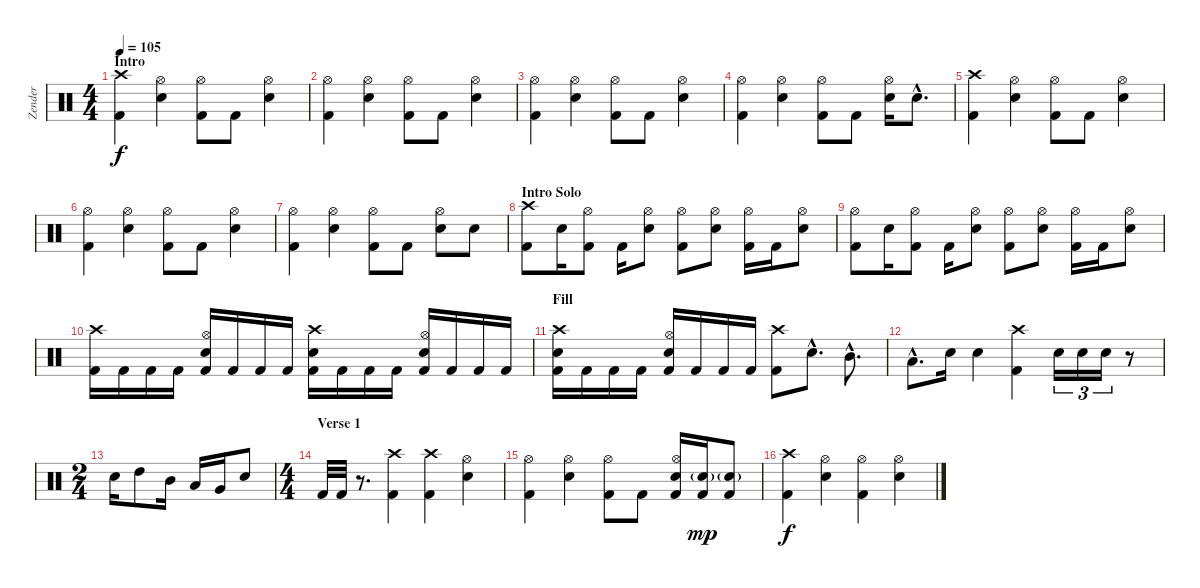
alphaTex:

\track ("Zender" "Zender") {instrument percussion}
\staff {score}
\articulation defaults
\ts (4 4)
\section ("" "Intro")
\tempo 105
\clef neutral
\ks c
("Crash high (hit)" "Kick (hit) 2").4{dy f} ("Hi-Hat (open)" "Electric Snare (hit)").4 ("Hi-Hat (open)" "Kick (hit) 2").8 "Kick (hit) 2".8 ("Hi-Hat (open)" "Electric Snare (hit)").4 |
("Hi-Hat (open)" "Kick (hit) 2").4 ("Hi-Hat (open)" "Electric Snare (hit)").4 ("Hi-Hat (open)" "Kick (hit) 2").8 "Kick (hit) 2".8 ("Hi-Hat (open)" "Electric Snare (hit)").4 |
("Hi-Hat (open)" "Kick (hit) 2").4 ("Hi-Hat (open)" "Electric Snare (hit)").4 ("Hi-Hat (open)" "Kick (hit) 2").8 "Kick (hit) 2".8 ("Hi-Hat (open)" "Electric Snare (hit)").4 |
("Hi-Hat (open)" "Kick (hit) 2").4 ("Hi-Hat (open)" "Electric Snare (hit)").4 ("Hi-Hat (open)" "Kick (hit) 2").8 "Kick (hit) 2".8 ("Hi-Hat (open)" "Electric Snare (hit)").16 "Electric Snare (hit)"{hac}.8{d} |
("Crash high (hit)" "Kick (hit) 2").4 ("Hi-Hat (open)" "Electric Snare (hit)").4 ("Hi-Hat (open)" "Kick (hit) 2").8 "Kick (hit) 2".8 ("Hi-Hat (open)" "Electric Snare (hit)").4 |
("Hi-Hat (open)" "Kick (hit) 2").4 ("Hi-Hat (open)" "Electric Snare (hit)").4 ("Hi-Hat (open)" "Kick (hit) 2").8 "Kick (hit) 2".8 ("Hi-Hat (open)" "Electric Snare (hit)").4 |
("Hi-Hat (open)" "Kick (hit) 2").4 ("Hi-Hat (open)" "Electric Snare (hit)").4 ("Hi-Hat (open)" "Kick (hit) 2").8 "Kick (hit) 2".8 ("Hi-Hat (open)" "Electric Snare (hit)").8 "Electric Snare (hit)".8 |
\section ("" "Intro Solo")
("Crash high (hit)" "Kick (hit) 2").8 "Electric Snare (hit)".16 ("Hi-Hat (open)" "Kick (hit) 2").8 "Kick (hit) 2".16 ("Hi-Hat (open)" "Electric Snare (hit)").8 ("Hi-Hat (open)" "Kick (hit) 2").8 ("Hi-Hat (open)" "Electric Snare (hit)").8 ("Hi-Hat (open)" "Kick (hit) 2").16 "Kick (hit) 2".16 ("Hi-Hat (open)" "Electric Snare (hit)").8 |
("Hi-Hat (open)" "Kick (hit) 2").8 "Electric Snare (hit)".16 ("Hi-Hat (open)" "Kick (hit) 2").8 "Kick (hit) 2".16 ("Hi-Hat (open)" "Electric Snare (hit)").8 ("Hi-Hat (open)" "Kick (hit) 2").8 ("Hi-Hat (open)" "Electric Snare (hit)").8 ("Hi-Hat (open)" "Kick (hit) 2").16 "Kick (hit) 2".16 ("Hi-Hat (open)" "Electric Snare (hit)").8 |
("Crash high (hit)" "Kick (hit) 2").16 "Kick (hit) 2".16 "Kick (hit) 2".16 "Kick (hit) 2".16 ("Hi-Hat (open)" "Electric Snare (hit)" "Kick (hit) 2").16 "Kick (hit) 2".16 "Kick (hit) 2".16 "Kick (hit) 2".16 ("Crash high (hit)" "Electric Snare (hit)" "Kick (hit) 2").16 "Kick (hit) 2".16 "Kick (hit) 2".16 "Kick (hit) 2".16 ("Hi-Hat (open)" "Electric Snare (hit)" "Kick (hit) 2").16 "Kick (hit) 2".16 "Kick (hit) 2".16 "Kick (hit) 2".16 |
\section ("" "Fill")
("Crash high (hit)" "Electric Snare (hit)" "Kick (hit) 2").16 "Kick (hit) 2".16 "Kick (hit) 2".16 "Kick (hit) 2".16 ("Hi-Hat (open)" "Electric Snare (hit)" "Kick (hit) 2").16 "Kick (hit) 2".16 "Kick (hit) 2".16 "Kick (hit) 2".16 ("Crash high (hit)" "Kick (hit) 2").8 "Electric Snare (hit)"{hac}.8{d} "Mid Tom (hit)"{hac}.8{d} |
"Low Tom (hit)"{hac}.8{d} "Electric Snare (hit)".16 "Electric Snare (hit)".4 ("Crash high (hit)" "Kick (hit) 2").4 "Electric Snare (hit)".16{tu (3 2)} "Electric Snare (hit)".16{tu (3 2)} "Electric Snare (hit)".16{tu (3 2)} r.8 |
\ts (2 4)
"Electric Snare (hit)".16 "High Tom (hit)".8 "Mid Tom (hit)".16 "Low Tom (hit)".16 "Very Low Tom (hit)".16 "Electric Snare (hit)".8 |
\ts (4 4)
\section ("" "Verse 1")
"Kick (hit) 2".32 "Kick (hit) 2".32 r.8{d} ("Crash high (hit)" "Kick (hit) 2").4 ("Crash high (hit)" "Kick (hit) 2").4 ("Electric Snare (hit)" "Hi-Hat (open)").4 |
("Hi-Hat (open)" "Kick (hit) 2").4 ("Electric Snare (hit)" "Hi-Hat (open)").4 ("Hi-Hat (open)" "Kick (hit) 2").8 "Kick (hit) 2".8 ("Electric Snare (hit)" "Hi-Hat (open)" "Kick (hit) 2").16 ("Electric Snare (hit)"{g} "Kick (hit) 2").16{dy mp} ("Electric Snare (hit)"{g} "Kick (hit) 2").8 |
("Crash high (hit)" "Kick (hit) 2").4{dy f} ("Electric Snare (hit)" "Hi-Hat (open)").4 ("Hi-Hat (open)" "Kick (hit) 2").4 ("Electric Snare (hit)" "Hi-Hat (open)").4
